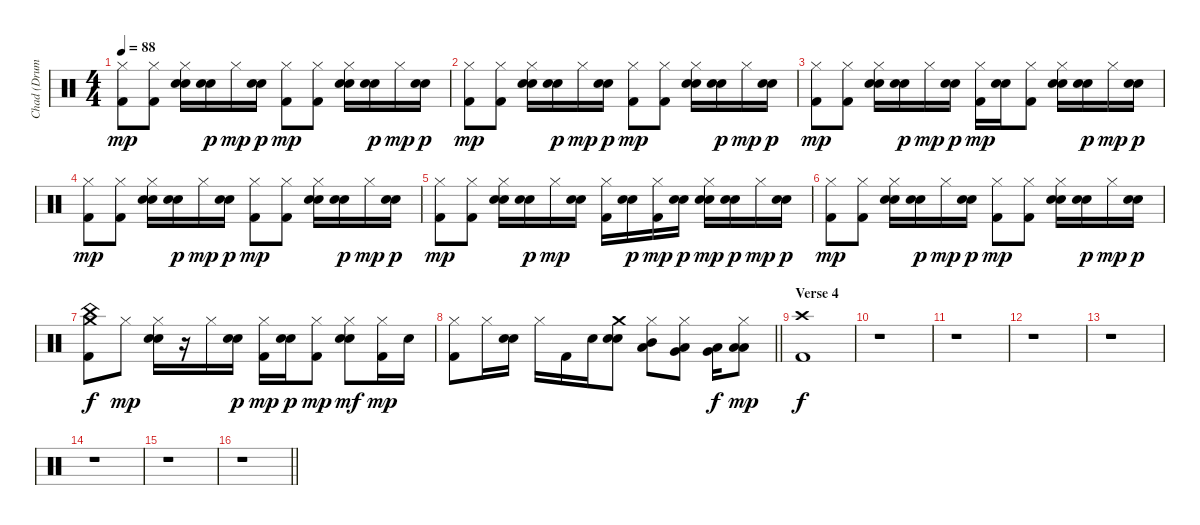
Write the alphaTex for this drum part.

\track ("Chad (Drums)" "Chad (Drum") {instrument percussion}
\staff {score}
\articulation defaults
\ts (4 4)
\tempo 88
\clef neutral
\ks c
("Hi-Hat (closed)" "Kick (hit) 2").8{dy mp} ("Hi-Hat (closed)" "Kick (hit) 2").8 ("Hi-Hat (closed)" "Electric Snare (hit)" "Snare (hit) 2").16 ("Electric Snare (hit)" "Snare (hit) 2").16{dy p} "Hi-Hat (closed)".16{dy mp} ("Electric Snare (hit)" "Snare (hit) 2").16{dy p} ("Hi-Hat (closed)" "Kick (hit) 2").8{dy mp} ("Hi-Hat (closed)" "Kick (hit) 2").8 ("Hi-Hat (closed)" "Electric Snare (hit)" "Snare (hit) 2").16 ("Electric Snare (hit)" "Snare (hit) 2").16{dy p} "Hi-Hat (closed)".16{dy mp} ("Electric Snare (hit)" "Snare (hit) 2").16{dy p} |
("Hi-Hat (closed)" "Kick (hit) 2").8{dy mp} ("Hi-Hat (closed)" "Kick (hit) 2").8 ("Hi-Hat (closed)" "Electric Snare (hit)" "Snare (hit) 2").16 ("Electric Snare (hit)" "Snare (hit) 2").16{dy p} "Hi-Hat (closed)".16{dy mp} ("Electric Snare (hit)" "Snare (hit) 2").16{dy p} ("Hi-Hat (closed)" "Kick (hit) 2").8{dy mp} ("Hi-Hat (closed)" "Kick (hit) 2").8 ("Hi-Hat (closed)" "Electric Snare (hit)" "Snare (hit) 2").16 ("Electric Snare (hit)" "Snare (hit) 2").16{dy p} "Hi-Hat (closed)".16{dy mp} ("Electric Snare (hit)" "Snare (hit) 2").16{dy p} |
("Hi-Hat (closed)" "Kick (hit) 2").8{dy mp} ("Hi-Hat (closed)" "Kick (hit) 2").8 ("Hi-Hat (closed)" "Electric Snare (hit)" "Snare (hit) 2").16 ("Electric Snare (hit)" "Snare (hit) 2").16{dy p} "Hi-Hat (closed)".16{dy mp} ("Electric Snare (hit)" "Snare (hit) 2").16{dy p} ("Hi-Hat (closed)" "Kick (hit) 2").16{dy mp} ("Electric Snare (hit)" "Snare (hit) 2").16 ("Hi-Hat (closed)" "Kick (hit) 2").8 ("Hi-Hat (closed)" "Electric Snare (hit)" "Snare (hit) 2").16 ("Electric Snare (hit)" "Snare (hit) 2").16{dy p} "Hi-Hat (closed)".16{dy mp} ("Electric Snare (hit)" "Snare (hit) 2").16{dy p} |
("Hi-Hat (closed)" "Kick (hit) 2").8{dy mp} ("Hi-Hat (closed)" "Kick (hit) 2").8 ("Hi-Hat (closed)" "Electric Snare (hit)" "Snare (hit) 2").16 ("Electric Snare (hit)" "Snare (hit) 2").16{dy p} "Hi-Hat (closed)".16{dy mp} ("Electric Snare (hit)" "Snare (hit) 2").16{dy p} ("Hi-Hat (closed)" "Kick (hit) 2").8{dy mp} ("Hi-Hat (closed)" "Kick (hit) 2").8 ("Hi-Hat (closed)" "Electric Snare (hit)" "Snare (hit) 2").16 ("Electric Snare (hit)" "Snare (hit) 2").16{dy p} "Hi-Hat (closed)".16{dy mp} ("Electric Snare (hit)" "Snare (hit) 2").16{dy p} |
("Hi-Hat (closed)" "Kick (hit) 2").8{dy mp} ("Hi-Hat (closed)" "Kick (hit) 2").8 ("Hi-Hat (closed)" "Electric Snare (hit)" "Snare (hit) 2").16 ("Electric Snare (hit)" "Snare (hit) 2").16{dy p} "Hi-Hat (closed)".16{dy mp} ("Electric Snare (hit)" "Snare (hit) 2").16 ("Hi-Hat (closed)" "Kick (hit) 2").16 ("Electric Snare (hit)" "Snare (hit) 2").16{dy p} ("Hi-Hat (closed)" "Kick (hit) 2").16{dy mp} ("Electric Snare (hit)" "Snare (hit) 2").16{dy p} ("Hi-Hat (closed)" "Electric Snare (hit)" "Snare (hit) 2").16{dy mp} ("Electric Snare (hit)" "Snare (hit) 2").16{dy p} "Hi-Hat (closed)".16{dy mp} ("Electric Snare (hit)" "Snare (hit) 2").16{dy p} |
("Hi-Hat (closed)" "Kick (hit) 2").8{dy mp} ("Hi-Hat (closed)" "Kick (hit) 2").8 ("Hi-Hat (closed)" "Electric Snare (hit)" "Snare (hit) 2").16 ("Electric Snare (hit)" "Snare (hit) 2").16{dy p} "Hi-Hat (closed)".16{dy mp} ("Electric Snare (hit)" "Snare (hit) 2").16{dy p} ("Hi-Hat (closed)" "Kick (hit) 2").8{dy mp} ("Hi-Hat (closed)" "Kick (hit) 2").8 ("Hi-Hat (closed)" "Electric Snare (hit)" "Snare (hit) 2").16 ("Electric Snare (hit)" "Snare (hit) 2").16{dy p} "Hi-Hat (closed)".16{dy mp} ("Electric Snare (hit)" "Snare (hit) 2").16{dy p} |
("China (hit)" "Crash medium (hit)" "Kick (hit) 2").8{dy f} "Hi-Hat (closed)".8{dy mp} ("Hi-Hat (closed)" "Electric Snare (hit)" "Snare (hit) 2").16 r.16 "Hi-Hat (closed)".16 ("Electric Snare (hit)" "Snare (hit) 2").16{dy p} ("Hi-Hat (closed)" "Kick (hit) 2").16{dy mp} ("Electric Snare (hit)" "Snare (hit) 2").16{dy p} ("Hi-Hat (closed)" "Kick (hit) 2").8{dy mp} ("Hi-Hat (closed)" "Electric Snare (hit)" "Snare (hit) 2").8{dy mf} ("Hi-Hat (closed)" "Kick (hit) 2").16{dy mp} "Snare (hit) 2".16 |
\barLineRight lightlight
("Hi-Hat (closed)" "Kick (hit) 2").8 "Hi-Hat (closed)".16 ("Electric Snare (hit)" "Snare (hit) 2").16 "Hi-Hat (closed)".16 "Kick (hit) 2".16 "Snare (hit) 2".16 ("Crash medium (hit)" "Electric Snare (hit)" "Snare (hit) 2").8 ("Hi-Hat (closed)" "Mid Tom (hit)" "Low Tom (hit)").8 ("Hi-Hat (closed)" "Low Tom (hit)" "Very Low Tom (hit)").8 ("Very Low Tom (hit)" "Low Floor Tom (hit)").16{dy f} ("Hi-Hat (closed)" "Low Floor Tom (hit)" "Low Floor Tom (hit)").8{dy mp} |
\section ("" "Verse 4")
("Crash high (hit)" "Kick (hit) 2").1{dy f} |
r.1 |
r.1 |
r.1 |
r.1 |
r.1 |
r.1 |
\barLineRight lightlight
r.1
